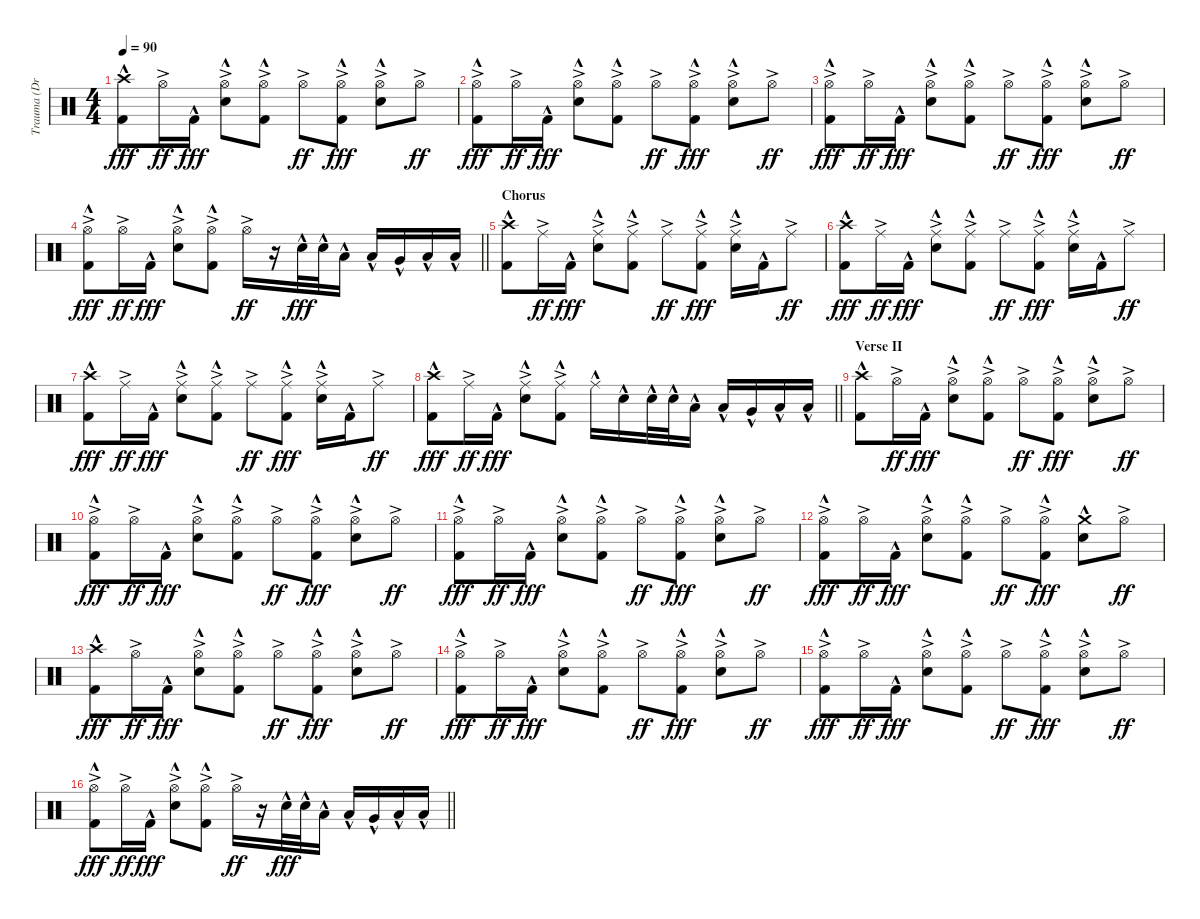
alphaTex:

\track ("Trauma (Drums)" "Trauma (Dr") {instrument percussion}
\staff {score}
\articulation defaults
\ts (4 4)
\tempo 90
\clef neutral
\ks c
("Crash high (hit)"{hac} "Kick (hit) 2"{hac}).8{dy fff} "Hi-Hat (open)"{ac}.16{dy ff} "Kick (hit) 2"{hac}.16{dy fff} ("Hi-Hat (open)"{ac} "Snare (hit) 2"{hac}).8 ("Hi-Hat (open)"{ac} "Kick (hit) 2"{hac}).8 "Hi-Hat (open)"{ac}.8{dy ff} ("Hi-Hat (open)"{ac} "Kick (hit) 2"{hac}).8{dy fff} ("Hi-Hat (open)"{ac} "Snare (hit) 2"{hac}).8 "Hi-Hat (open)"{ac}.8{dy ff} |
("Hi-Hat (open)"{ac} "Kick (hit) 2"{hac}).8{dy fff} "Hi-Hat (open)"{ac}.16{dy ff} "Kick (hit) 2"{hac}.16{dy fff} ("Hi-Hat (open)"{ac} "Snare (hit) 2"{hac}).8 ("Hi-Hat (open)"{ac} "Kick (hit) 2"{hac}).8 "Hi-Hat (open)"{ac}.8{dy ff} ("Hi-Hat (open)"{ac} "Kick (hit) 2"{hac}).8{dy fff} ("Hi-Hat (open)"{ac} "Snare (hit) 2"{hac}).8 "Hi-Hat (open)"{ac}.8{dy ff} |
("Hi-Hat (open)"{ac} "Kick (hit) 2"{hac}).8{dy fff} "Hi-Hat (open)"{ac}.16{dy ff} "Kick (hit) 2"{hac}.16{dy fff} ("Hi-Hat (open)"{ac} "Snare (hit) 2"{hac}).8 ("Hi-Hat (open)"{ac} "Kick (hit) 2"{hac}).8 "Hi-Hat (open)"{ac}.8{dy ff} ("Hi-Hat (open)"{ac} "Kick (hit) 2"{hac}).8{dy fff} ("Hi-Hat (open)"{ac} "Snare (hit) 2"{hac}).8 "Hi-Hat (open)"{ac}.8{dy ff} |
\barLineRight lightlight
("Hi-Hat (open)"{ac} "Kick (hit) 2"{hac}).8{dy fff} "Hi-Hat (open)"{ac}.16{dy ff} "Kick (hit) 2"{hac}.16{dy fff} ("Hi-Hat (open)"{ac} "Snare (hit) 2"{hac}).8 ("Hi-Hat (open)"{ac} "Kick (hit) 2"{hac}).8 "Hi-Hat (open)"{ac}.16{dy ff} r.16 "Snare (hit) 2"{hac}.32{dy fff} "Snare (hit) 2"{hac}.32 "Low Tom (hit)"{hac}.16 "Low Tom (hit)"{hac}.16 "Very Low Tom (hit)"{hac}.16 "Low Floor Tom (hit)"{hac}.16 "Low Floor Tom (hit)"{hac}.16 |
\section ("" "Chorus")
("Crash high (hit)"{hac} "Kick (hit) 2"{hac}).8 "Ride (middle)"{ac}.16{dy ff} "Kick (hit) 2"{hac}.16{dy fff} ("Ride (middle)"{ac} "Snare (hit) 2"{hac}).8 ("Ride (middle)"{ac} "Kick (hit) 2"{hac}).8 "Ride (middle)"{ac}.8{dy ff} ("Ride (middle)"{ac} "Kick (hit) 2"{hac}).8{dy fff} ("Ride (middle)"{ac} "Snare (hit) 2"{hac}).16 "Kick (hit) 2"{hac}.16 "Ride (middle)"{ac}.8{dy ff} |
("Crash high (hit)"{hac} "Kick (hit) 2"{hac}).8{dy fff} "Ride (middle)"{ac}.16{dy ff} "Kick (hit) 2"{hac}.16{dy fff} ("Ride (middle)"{ac} "Snare (hit) 2"{hac}).8 ("Ride (middle)"{ac} "Kick (hit) 2"{hac}).8 "Ride (middle)"{ac}.8{dy ff} ("Ride (middle)"{ac} "Kick (hit) 2"{hac}).8{dy fff} ("Ride (middle)"{ac} "Snare (hit) 2"{hac}).16 "Kick (hit) 2"{hac}.16 "Ride (middle)"{ac}.8{dy ff} |
("Crash high (hit)"{hac} "Kick (hit) 2"{hac}).8{dy fff} "Ride (middle)"{ac}.16{dy ff} "Kick (hit) 2"{hac}.16{dy fff} ("Ride (middle)"{ac} "Snare (hit) 2"{hac}).8 ("Ride (middle)"{ac} "Kick (hit) 2"{hac}).8 "Ride (middle)"{ac}.8{dy ff} ("Ride (middle)"{ac} "Kick (hit) 2"{hac}).8{dy fff} ("Ride (middle)"{ac} "Snare (hit) 2"{hac}).16 "Kick (hit) 2"{hac}.16 "Ride (middle)"{ac}.8{dy ff} |
\barLineRight lightlight
("Crash high (hit)"{hac} "Kick (hit) 2"{hac}).8{dy fff} "Ride (middle)"{ac}.16{dy ff} "Kick (hit) 2"{hac}.16{dy fff} ("Ride (middle)"{ac} "Snare (hit) 2"{hac}).8 ("Ride (middle)"{ac} "Kick (hit) 2"{hac}).8 "Ride (middle)"{hac}.16 "Snare (hit) 2"{hac}.16 "Snare (hit) 2"{hac}.32 "Snare (hit) 2"{hac}.32 "Low Tom (hit)"{hac}.16 "Low Tom (hit)"{hac}.16 "Very Low Tom (hit)"{hac}.16 "Low Floor Tom (hit)"{hac}.16 "Low Floor Tom (hit)"{hac}.16 |
\section ("" "Verse II")
("Crash high (hit)"{hac} "Kick (hit) 2"{hac}).8 "Hi-Hat (open)"{ac}.16{dy ff} "Kick (hit) 2"{hac}.16{dy fff} ("Hi-Hat (open)"{ac} "Snare (hit) 2"{hac}).8 ("Hi-Hat (open)"{ac} "Kick (hit) 2"{hac}).8 "Hi-Hat (open)"{ac}.8{dy ff} ("Hi-Hat (open)"{ac} "Kick (hit) 2"{hac}).8{dy fff} ("Hi-Hat (open)"{ac} "Snare (hit) 2"{hac}).8 "Hi-Hat (open)"{ac}.8{dy ff} |
("Hi-Hat (open)"{ac} "Kick (hit) 2"{hac}).8{dy fff} "Hi-Hat (open)"{ac}.16{dy ff} "Kick (hit) 2"{hac}.16{dy fff} ("Hi-Hat (open)"{ac} "Snare (hit) 2"{hac}).8 ("Hi-Hat (open)"{ac} "Kick (hit) 2"{hac}).8 "Hi-Hat (open)"{ac}.8{dy ff} ("Hi-Hat (open)"{ac} "Kick (hit) 2"{hac}).8{dy fff} ("Hi-Hat (open)"{ac} "Snare (hit) 2"{hac}).8 "Hi-Hat (open)"{ac}.8{dy ff} |
("Hi-Hat (open)"{ac} "Kick (hit) 2"{hac}).8{dy fff} "Hi-Hat (open)"{ac}.16{dy ff} "Kick (hit) 2"{hac}.16{dy fff} ("Hi-Hat (open)"{ac} "Snare (hit) 2"{hac}).8 ("Hi-Hat (open)"{ac} "Kick (hit) 2"{hac}).8 "Hi-Hat (open)"{ac}.8{dy ff} ("Hi-Hat (open)"{ac} "Kick (hit) 2"{hac}).8{dy fff} ("Hi-Hat (open)"{ac} "Snare (hit) 2"{hac}).8 "Hi-Hat (open)"{ac}.8{dy ff} |
("Hi-Hat (open)"{ac} "Kick (hit) 2"{hac}).8{dy fff} "Hi-Hat (open)"{ac}.16{dy ff} "Kick (hit) 2"{hac}.16{dy fff} ("Hi-Hat (open)"{ac} "Snare (hit) 2"{hac}).8 ("Hi-Hat (open)"{ac} "Kick (hit) 2"{hac}).8 "Hi-Hat (open)"{ac}.8{dy ff} ("Hi-Hat (open)"{ac} "Kick (hit) 2"{hac}).8{dy fff} ("Crash medium (hit)"{hac} "Snare (hit) 2"{hac}).8 "Hi-Hat (open)"{ac}.8{dy ff} |
("Crash high (hit)"{hac} "Kick (hit) 2"{hac}).8{dy fff} "Hi-Hat (open)"{ac}.16{dy ff} "Kick (hit) 2"{hac}.16{dy fff} ("Hi-Hat (open)"{ac} "Snare (hit) 2"{hac}).8 ("Hi-Hat (open)"{ac} "Kick (hit) 2"{hac}).8 "Hi-Hat (open)"{ac}.8{dy ff} ("Hi-Hat (open)"{ac} "Kick (hit) 2"{hac}).8{dy fff} ("Hi-Hat (open)"{ac} "Snare (hit) 2"{hac}).8 "Hi-Hat (open)"{ac}.8{dy ff} |
("Hi-Hat (open)"{ac} "Kick (hit) 2"{hac}).8{dy fff} "Hi-Hat (open)"{ac}.16{dy ff} "Kick (hit) 2"{hac}.16{dy fff} ("Hi-Hat (open)"{ac} "Snare (hit) 2"{hac}).8 ("Hi-Hat (open)"{ac} "Kick (hit) 2"{hac}).8 "Hi-Hat (open)"{ac}.8{dy ff} ("Hi-Hat (open)"{ac} "Kick (hit) 2"{hac}).8{dy fff} ("Hi-Hat (open)"{ac} "Snare (hit) 2"{hac}).8 "Hi-Hat (open)"{ac}.8{dy ff} |
("Hi-Hat (open)"{ac} "Kick (hit) 2"{hac}).8{dy fff} "Hi-Hat (open)"{ac}.16{dy ff} "Kick (hit) 2"{hac}.16{dy fff} ("Hi-Hat (open)"{ac} "Snare (hit) 2"{hac}).8 ("Hi-Hat (open)"{ac} "Kick (hit) 2"{hac}).8 "Hi-Hat (open)"{ac}.8{dy ff} ("Hi-Hat (open)"{ac} "Kick (hit) 2"{hac}).8{dy fff} ("Hi-Hat (open)"{ac} "Snare (hit) 2"{hac}).8 "Hi-Hat (open)"{ac}.8{dy ff} |
\barLineRight lightlight
("Hi-Hat (open)"{ac} "Kick (hit) 2"{hac}).8{dy fff} "Hi-Hat (open)"{ac}.16{dy ff} "Kick (hit) 2"{hac}.16{dy fff} ("Hi-Hat (open)"{ac} "Snare (hit) 2"{hac}).8 ("Hi-Hat (open)"{ac} "Kick (hit) 2"{hac}).8 "Hi-Hat (open)"{ac}.16{dy ff} r.16 "Snare (hit) 2"{hac}.32{dy fff} "Snare (hit) 2"{hac}.32 "Low Tom (hit)"{hac}.16 "Low Tom (hit)"{hac}.16 "Very Low Tom (hit)"{hac}.16 "Low Floor Tom (hit)"{hac}.16 "Low Floor Tom (hit)"{hac}.16
